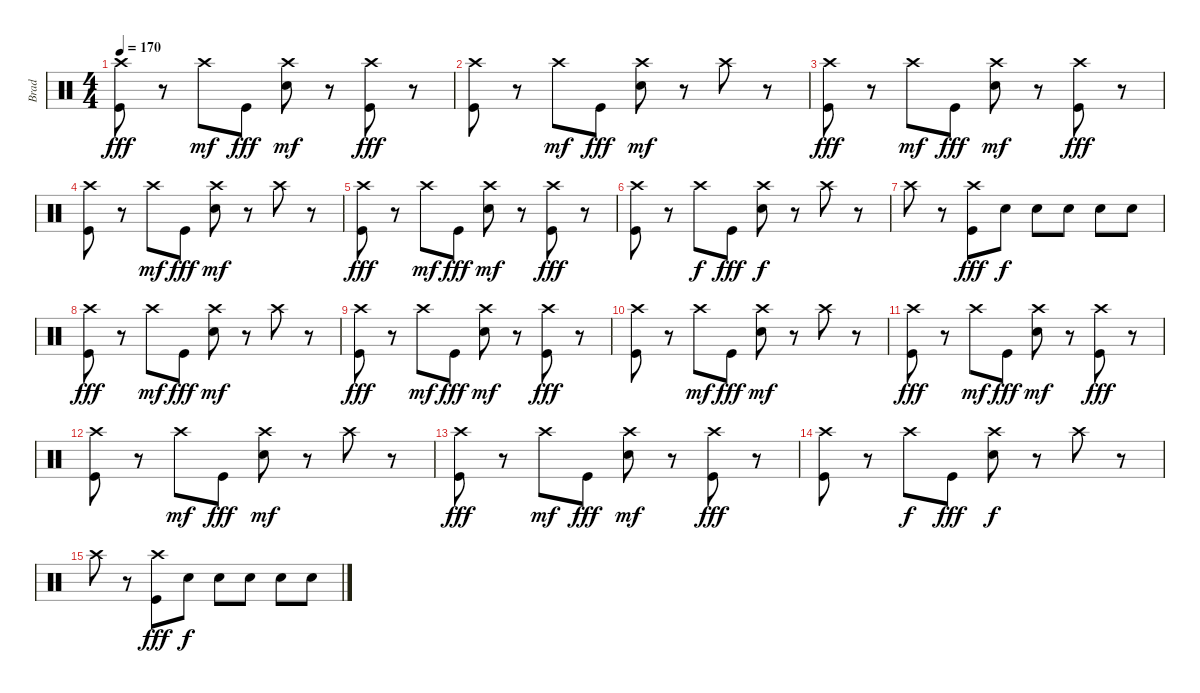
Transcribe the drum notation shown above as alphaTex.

\track ("Brad" "Brad") {instrument percussion}
\staff {score}
\articulation defaults
\ts (4 4)
\tempo 170
\clef neutral
\ks c
("Crash high (hit)" "Kick (hit)").8{dy fff} r.8 "Crash high (hit)".8{dy mf} "Kick (hit)".8{dy fff} ("Crash high (hit)" "Electric Snare (hit)").8{dy mf} r.8 ("Crash high (hit)" "Kick (hit)").8{dy fff} r.8 |
("Crash high (hit)" "Kick (hit)").8 r.8 "Crash high (hit)".8{dy mf} "Kick (hit)".8{dy fff} ("Crash high (hit)" "Electric Snare (hit)").8{dy mf} r.8 "Crash high (hit)".8 r.8 |
("Crash high (hit)" "Kick (hit)").8{dy fff} r.8 "Crash high (hit)".8{dy mf} "Kick (hit)".8{dy fff} ("Crash high (hit)" "Electric Snare (hit)").8{dy mf} r.8 ("Crash high (hit)" "Kick (hit)").8{dy fff} r.8 |
("Crash high (hit)" "Kick (hit)").8 r.8 "Crash high (hit)".8{dy mf} "Kick (hit)".8{dy fff} ("Crash high (hit)" "Electric Snare (hit)").8{dy mf} r.8 "Crash high (hit)".8 r.8 |
("Crash high (hit)" "Kick (hit)").8{dy fff} r.8 "Crash high (hit)".8{dy mf} "Kick (hit)".8{dy fff} ("Crash high (hit)" "Electric Snare (hit)").8{dy mf} r.8 ("Crash high (hit)" "Kick (hit)").8{dy fff} r.8 |
("Crash high (hit)" "Kick (hit)").8 r.8 "Crash high (hit)".8{dy f} "Kick (hit)".8{dy fff} ("Crash high (hit)" "Electric Snare (hit)").8{dy f} r.8 "Crash high (hit)".8 r.8 |
"Crash high (hit)".8 r.8 ("Crash high (hit)" "Kick (hit)").8{dy fff} "Electric Snare (hit)".8{dy f} "Electric Snare (hit)".8 "Electric Snare (hit)".8 "Electric Snare (hit)".8 "Electric Snare (hit)".8 |
("Crash high (hit)" "Kick (hit)").8{dy fff} r.8 "Crash high (hit)".8{dy mf} "Kick (hit)".8{dy fff} ("Crash high (hit)" "Electric Snare (hit)").8{dy mf} r.8 "Crash high (hit)".8 r.8 |
("Crash high (hit)" "Kick (hit)").8{dy fff} r.8 "Crash high (hit)".8{dy mf} "Kick (hit)".8{dy fff} ("Crash high (hit)" "Electric Snare (hit)").8{dy mf} r.8 ("Crash high (hit)" "Kick (hit)").8{dy fff} r.8 |
("Crash high (hit)" "Kick (hit)").8 r.8 "Crash high (hit)".8{dy mf} "Kick (hit)".8{dy fff} ("Crash high (hit)" "Electric Snare (hit)").8{dy mf} r.8 "Crash high (hit)".8 r.8 |
("Crash high (hit)" "Kick (hit)").8{dy fff} r.8 "Crash high (hit)".8{dy mf} "Kick (hit)".8{dy fff} ("Crash high (hit)" "Electric Snare (hit)").8{dy mf} r.8 ("Crash high (hit)" "Kick (hit)").8{dy fff} r.8 |
("Crash high (hit)" "Kick (hit)").8 r.8 "Crash high (hit)".8{dy mf} "Kick (hit)".8{dy fff} ("Crash high (hit)" "Electric Snare (hit)").8{dy mf} r.8 "Crash high (hit)".8 r.8 |
("Crash high (hit)" "Kick (hit)").8{dy fff} r.8 "Crash high (hit)".8{dy mf} "Kick (hit)".8{dy fff} ("Crash high (hit)" "Electric Snare (hit)").8{dy mf} r.8 ("Crash high (hit)" "Kick (hit)").8{dy fff} r.8 |
("Crash high (hit)" "Kick (hit)").8 r.8 "Crash high (hit)".8{dy f} "Kick (hit)".8{dy fff} ("Crash high (hit)" "Electric Snare (hit)").8{dy f} r.8 "Crash high (hit)".8 r.8 |
"Crash high (hit)".8 r.8 ("Crash high (hit)" "Kick (hit)").8{dy fff} "Electric Snare (hit)".8{dy f} "Electric Snare (hit)".8 "Electric Snare (hit)".8 "Electric Snare (hit)".8 "Electric Snare (hit)".8
